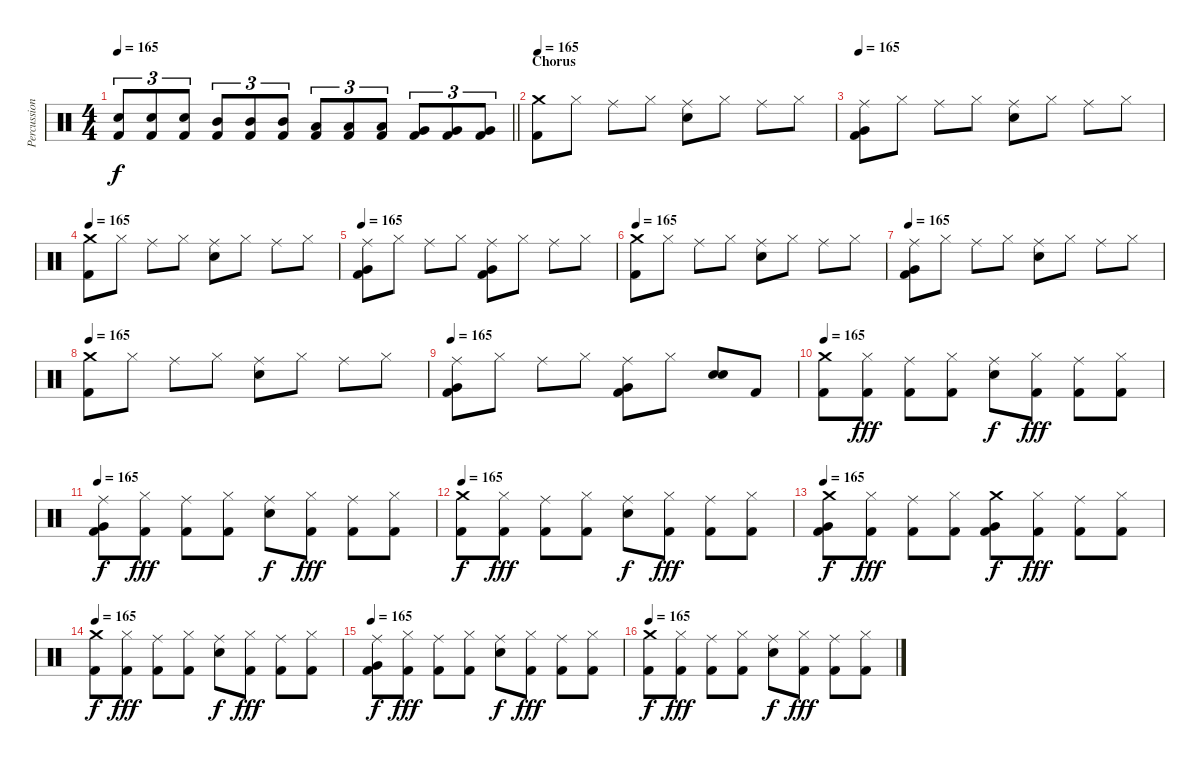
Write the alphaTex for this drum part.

\track ("Percussion" "Percussion") {instrument percussion}
\staff {score}
\articulation defaults
\ts (4 4)
\tempo 165
\clef neutral
\barLineRight lightlight
\ks c
("Electric Snare (hit)" "Kick (hit) 2").8{tu (3 2) dy f} ("Electric Snare (hit)" "Kick (hit) 2").8{tu (3 2)} ("Electric Snare (hit)" "Kick (hit) 2").8{tu (3 2)} ("Mid Tom (hit)" "Kick (hit) 2").8{tu (3 2)} ("Mid Tom (hit)" "Kick (hit) 2").8{tu (3 2)} ("Mid Tom (hit)" "Kick (hit) 2").8{tu (3 2)} ("Low Tom (hit)" "Kick (hit) 2").8{tu (3 2)} ("Low Tom (hit)" "Kick (hit) 2").8{tu (3 2)} ("Low Tom (hit)" "Kick (hit) 2").8{tu (3 2)} ("Very Low Tom (hit)" "Kick (hit) 2").8{tu (3 2)} ("Very Low Tom (hit)" "Kick (hit) 2").8{tu (3 2)} ("Very Low Tom (hit)" "Kick (hit) 2").8{tu (3 2)} |
\section ("" "Chorus")
\tempo 165
("Crash medium (hit)" "Kick (hit) 2").8 "Hi-Hat (closed)".8 "Ride (middle)".8 "Hi-Hat (closed)".8 ("Ride (middle)" "Electric Snare (hit)").8 "Hi-Hat (closed)".8 "Ride (middle)".8 "Hi-Hat (closed)".8 |
\tempo 165
("Ride (middle)" "Very Low Tom (hit)" "Kick (hit) 2").8 "Hi-Hat (closed)".8 "Ride (middle)".8 "Hi-Hat (closed)".8 ("Ride (middle)" "Electric Snare (hit)").8 "Hi-Hat (closed)".8 "Ride (middle)".8 "Hi-Hat (closed)".8 |
\tempo 165
("Crash medium (hit)" "Kick (hit) 2").8 "Hi-Hat (closed)".8 "Ride (middle)".8 "Hi-Hat (closed)".8 ("Ride (middle)" "Electric Snare (hit)").8 "Hi-Hat (closed)".8 "Ride (middle)".8 "Hi-Hat (closed)".8 |
\tempo 165
("Ride (middle)" "Very Low Tom (hit)" "Kick (hit) 2").8 "Hi-Hat (closed)".8 "Ride (middle)".8 "Hi-Hat (closed)".8 ("Ride (middle)" "Very Low Tom (hit)" "Kick (hit) 2").8 "Hi-Hat (closed)".8 "Ride (middle)".8 "Hi-Hat (closed)".8 |
\tempo 165
("Crash medium (hit)" "Kick (hit) 2").8 "Hi-Hat (closed)".8 "Ride (middle)".8 "Hi-Hat (closed)".8 ("Ride (middle)" "Electric Snare (hit)").8 "Hi-Hat (closed)".8 "Ride (middle)".8 "Hi-Hat (closed)".8 |
\tempo 165
("Ride (middle)" "Very Low Tom (hit)" "Kick (hit) 2").8 "Hi-Hat (closed)".8 "Ride (middle)".8 "Hi-Hat (closed)".8 ("Ride (middle)" "Electric Snare (hit)").8 "Hi-Hat (closed)".8 "Ride (middle)".8 "Hi-Hat (closed)".8 |
\tempo 165
("Crash medium (hit)" "Kick (hit) 2").8 "Hi-Hat (closed)".8 "Ride (middle)".8 "Hi-Hat (closed)".8 ("Ride (middle)" "Electric Snare (hit)").8 "Hi-Hat (closed)".8 "Ride (middle)".8 "Hi-Hat (closed)".8 |
\tempo 165
("Ride (middle)" "Very Low Tom (hit)" "Kick (hit) 2").8 "Hi-Hat (closed)".8 "Ride (middle)".8 "Hi-Hat (closed)".8 ("Ride (middle)" "Very Low Tom (hit)" "Kick (hit) 2").8 "Hi-Hat (closed)".8 ("Electric Snare (hit)" "Electric Snare (hit)").8{bd 120} "Kick (hit) 2".8 |
\tempo 165
("Crash medium (hit)" "Kick (hit) 2").8 ("Hi-Hat (closed)" "Kick (hit) 2").8{dy fff} ("Ride (middle)" "Kick (hit) 2").8 ("Hi-Hat (closed)" "Kick (hit) 2").8 ("Ride (middle)" "Electric Snare (hit)").8{dy f} ("Hi-Hat (closed)" "Kick (hit) 2").8{dy fff} ("Ride (middle)" "Kick (hit) 2").8 ("Hi-Hat (closed)" "Kick (hit) 2").8 |
\tempo 165
("Ride (middle)" "Very Low Tom (hit)" "Kick (hit) 2").8{dy f} ("Hi-Hat (closed)" "Kick (hit) 2").8{dy fff} ("Ride (middle)" "Kick (hit) 2").8 ("Hi-Hat (closed)" "Kick (hit) 2").8 ("Ride (middle)" "Electric Snare (hit)").8{dy f} ("Hi-Hat (closed)" "Kick (hit) 2").8{dy fff} ("Ride (middle)" "Kick (hit) 2").8 ("Hi-Hat (closed)" "Kick (hit) 2").8 |
\tempo 165
("Crash medium (hit)" "Kick (hit) 2").8{dy f} ("Hi-Hat (closed)" "Kick (hit) 2").8{dy fff} ("Ride (middle)" "Kick (hit) 2").8 ("Hi-Hat (closed)" "Kick (hit) 2").8 ("Ride (middle)" "Electric Snare (hit)").8{dy f} ("Hi-Hat (closed)" "Kick (hit) 2").8{dy fff} ("Ride (middle)" "Kick (hit) 2").8 ("Hi-Hat (closed)" "Kick (hit) 2").8 |
\tempo 165
("Crash medium (hit)" "Very Low Tom (hit)" "Kick (hit) 2").8{dy f} ("Hi-Hat (closed)" "Kick (hit) 2").8{dy fff} ("Ride (middle)" "Kick (hit) 2").8 ("Hi-Hat (closed)" "Kick (hit) 2").8 ("Crash medium (hit)" "Very Low Tom (hit)" "Kick (hit) 2").8{dy f} ("Hi-Hat (closed)" "Kick (hit) 2").8{dy fff} ("Ride (middle)" "Kick (hit) 2").8 ("Hi-Hat (closed)" "Kick (hit) 2").8 |
\tempo 165
("Crash medium (hit)" "Kick (hit) 2").8{dy f} ("Hi-Hat (closed)" "Kick (hit) 2").8{dy fff} ("Ride (middle)" "Kick (hit) 2").8 ("Hi-Hat (closed)" "Kick (hit) 2").8 ("Ride (middle)" "Electric Snare (hit)").8{dy f} ("Hi-Hat (closed)" "Kick (hit) 2").8{dy fff} ("Ride (middle)" "Kick (hit) 2").8 ("Hi-Hat (closed)" "Kick (hit) 2").8 |
\tempo 165
("Ride (middle)" "Very Low Tom (hit)" "Kick (hit) 2").8{dy f} ("Hi-Hat (closed)" "Kick (hit) 2").8{dy fff} ("Ride (middle)" "Kick (hit) 2").8 ("Hi-Hat (closed)" "Kick (hit) 2").8 ("Ride (middle)" "Electric Snare (hit)").8{dy f} ("Hi-Hat (closed)" "Kick (hit) 2").8{dy fff} ("Ride (middle)" "Kick (hit) 2").8 ("Hi-Hat (closed)" "Kick (hit) 2").8 |
\tempo 165
("Crash medium (hit)" "Kick (hit) 2").8{dy f} ("Hi-Hat (closed)" "Kick (hit) 2").8{dy fff} ("Ride (middle)" "Kick (hit) 2").8 ("Hi-Hat (closed)" "Kick (hit) 2").8 ("Ride (middle)" "Electric Snare (hit)").8{dy f} ("Hi-Hat (closed)" "Kick (hit) 2").8{dy fff} ("Ride (middle)" "Kick (hit) 2").8 ("Hi-Hat (closed)" "Kick (hit) 2").8
